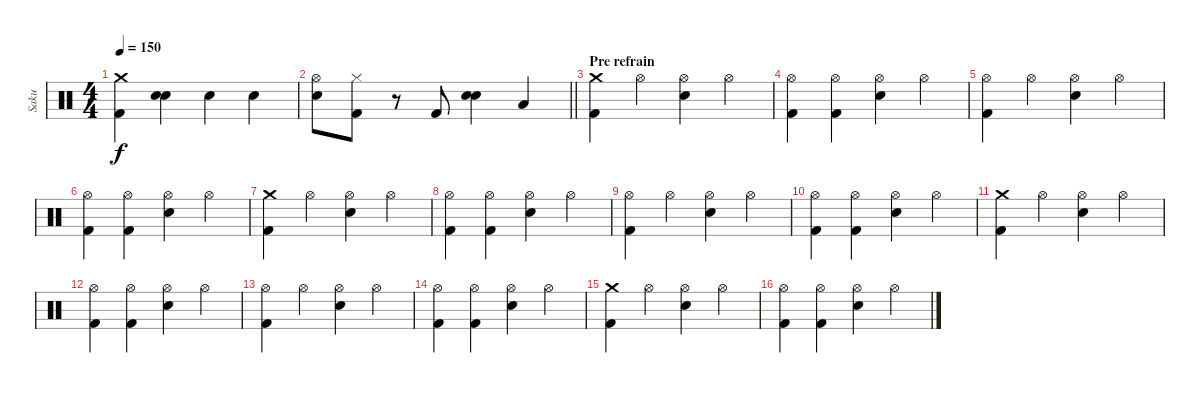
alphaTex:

\track ("Saku" "Saku") {instrument percussion}
\staff {score}
\articulation defaults
\ts (4 4)
\tempo 150
\clef neutral
\ks c
("Crash medium (hit)" "Kick (hit) 2").4{dy f} ("Electric Snare (hit)" "Electric Snare (hit)").4{bu 120} "Electric Snare (hit)".4 "Electric Snare (hit)".4 |
\barLineRight lightlight
("Hi-Hat (open)" "Electric Snare (hit)").8 ("Hi-Hat (closed)" "Kick (hit) 2").8 r.8 "Kick (hit) 2".8 ("Electric Snare (hit)" "Electric Snare (hit)").4{bu 240} "Low Tom (hit)".4 |
\section ("" "Pre refrain")
("Crash medium (hit)" "Kick (hit) 2").4 "Hi-Hat (open)".4 ("Hi-Hat (open)" "Electric Snare (hit)").4 "Hi-Hat (open)".4 |
("Hi-Hat (open)" "Kick (hit) 2").4 ("Hi-Hat (open)" "Kick (hit) 2").4 ("Hi-Hat (open)" "Electric Snare (hit)").4 "Hi-Hat (open)".4 |
("Hi-Hat (open)" "Kick (hit) 2").4 "Hi-Hat (open)".4 ("Hi-Hat (open)" "Electric Snare (hit)").4 "Hi-Hat (open)".4 |
("Hi-Hat (open)" "Kick (hit) 2").4 ("Hi-Hat (open)" "Kick (hit) 2").4 ("Hi-Hat (open)" "Electric Snare (hit)").4 "Hi-Hat (open)".4 |
("Crash medium (hit)" "Kick (hit) 2").4 "Hi-Hat (open)".4 ("Hi-Hat (open)" "Electric Snare (hit)").4 "Hi-Hat (open)".4 |
("Hi-Hat (open)" "Kick (hit) 2").4 ("Hi-Hat (open)" "Kick (hit) 2").4 ("Hi-Hat (open)" "Electric Snare (hit)").4 "Hi-Hat (open)".4 |
("Hi-Hat (open)" "Kick (hit) 2").4 "Hi-Hat (open)".4 ("Hi-Hat (open)" "Electric Snare (hit)").4 "Hi-Hat (open)".4 |
("Hi-Hat (open)" "Kick (hit) 2").4 ("Hi-Hat (open)" "Kick (hit) 2").4 ("Hi-Hat (open)" "Electric Snare (hit)").4 "Hi-Hat (open)".4 |
("Crash medium (hit)" "Kick (hit) 2").4 "Hi-Hat (open)".4 ("Hi-Hat (open)" "Electric Snare (hit)").4 "Hi-Hat (open)".4 |
("Hi-Hat (open)" "Kick (hit) 2").4 ("Hi-Hat (open)" "Kick (hit) 2").4 ("Hi-Hat (open)" "Electric Snare (hit)").4 "Hi-Hat (open)".4 |
("Hi-Hat (open)" "Kick (hit) 2").4 "Hi-Hat (open)".4 ("Hi-Hat (open)" "Electric Snare (hit)").4 "Hi-Hat (open)".4 |
("Hi-Hat (open)" "Kick (hit) 2").4 ("Hi-Hat (open)" "Kick (hit) 2").4 ("Hi-Hat (open)" "Electric Snare (hit)").4 "Hi-Hat (open)".4 |
("Crash medium (hit)" "Kick (hit) 2").4 "Hi-Hat (open)".4 ("Hi-Hat (open)" "Electric Snare (hit)").4 "Hi-Hat (open)".4 |
("Hi-Hat (open)" "Kick (hit) 2").4 ("Hi-Hat (open)" "Kick (hit) 2").4 ("Hi-Hat (open)" "Electric Snare (hit)").4 "Hi-Hat (open)".4
